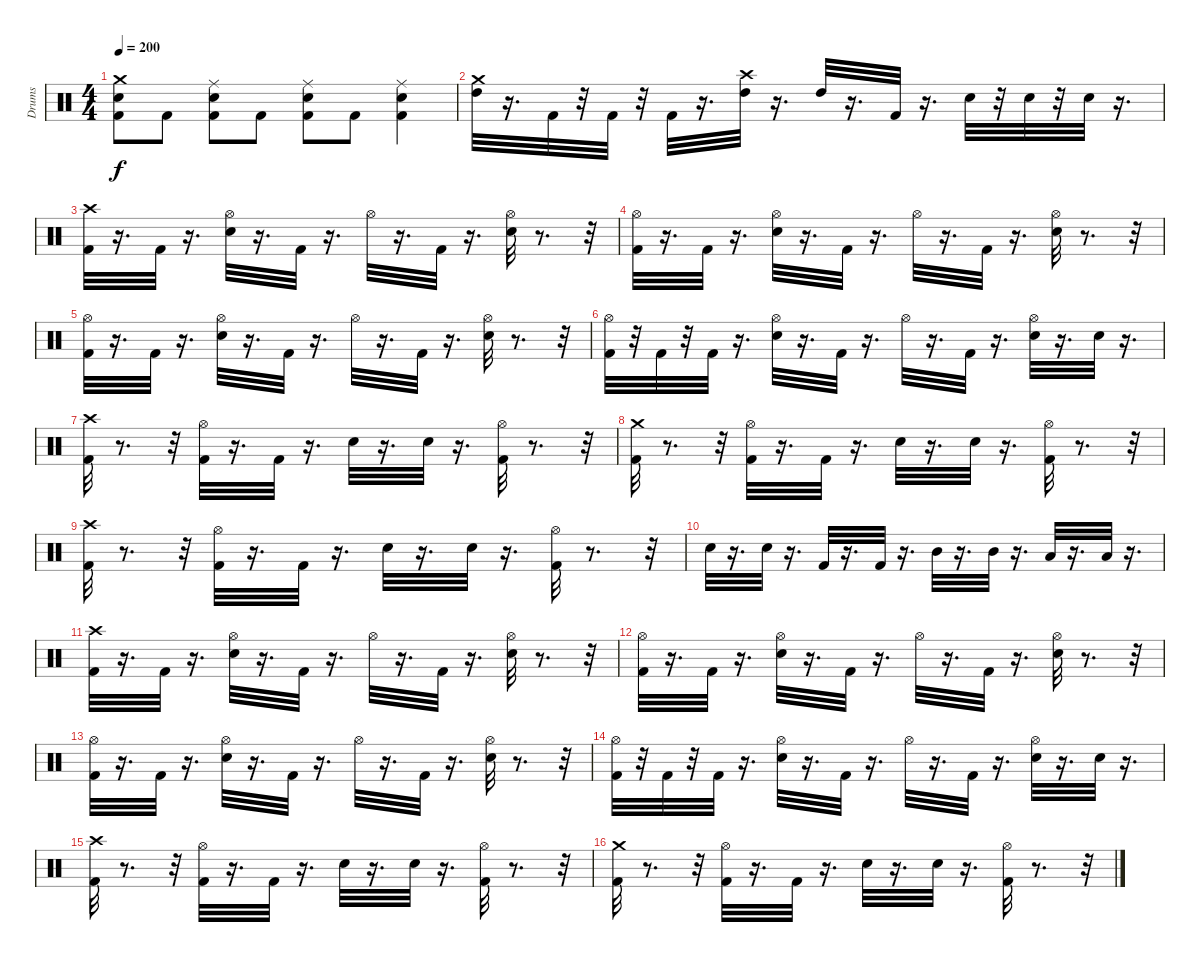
\track ("Drums" "Drums") {instrument percussion}
\staff {score}
\articulation defaults
\ts (4 4)
\tempo 200
\clef neutral
\ks c
("Crash medium (hit)" "Electric Snare (hit)" "Kick (hit) 2").8{dy f} "Kick (hit) 2".8 ("Electric Snare (hit)" "Kick (hit) 2" "Ride (middle)").8 "Kick (hit) 2".8 ("Electric Snare (hit)" "Ride (middle)" "Kick (hit) 2").8 "Kick (hit) 2".8 ("Ride (middle)" "Kick (hit) 2" "Electric Snare (hit)").4 |
("High Tom (hit)" "Crash medium (hit)").32 r.16{d} "Kick (hit) 2".32 r.32 "Kick (hit) 2".32 r.32 "Kick (hit) 2".32 r.16{d} ("Crash high (hit)" "High Tom (hit)").32 r.16{d} "High Tom (hit)".32 r.16{d} "Kick (hit) 2".32 r.16{d} "Electric Snare (hit)".32 r.32 "Electric Snare (hit)".32 r.32 "Electric Snare (hit)".32 r.16{d} |
("Crash high (hit)" "Kick (hit) 2").32 r.16{d} "Kick (hit) 2".32 r.16{d} ("Hi-Hat (open)" "Electric Snare (hit)").32 r.16{d} "Kick (hit) 2".32 r.16{d} "Hi-Hat (open)".32 r.16{d} "Kick (hit) 2".32 r.16{d} ("Hi-Hat (open)" "Electric Snare (hit)").32 r.8{d} r.32 |
("Hi-Hat (open)" "Kick (hit) 2").32 r.16{d} "Kick (hit) 2".32 r.16{d} ("Hi-Hat (open)" "Electric Snare (hit)").32 r.16{d} "Kick (hit) 2".32 r.16{d} "Hi-Hat (open)".32 r.16{d} "Kick (hit) 2".32 r.16{d} ("Hi-Hat (open)" "Electric Snare (hit)").32 r.8{d} r.32 |
("Hi-Hat (open)" "Kick (hit) 2").32 r.16{d} "Kick (hit) 2".32 r.16{d} ("Hi-Hat (open)" "Electric Snare (hit)").32 r.16{d} "Kick (hit) 2".32 r.16{d} "Hi-Hat (open)".32 r.16{d} "Kick (hit) 2".32 r.16{d} ("Hi-Hat (open)" "Electric Snare (hit)").32 r.8{d} r.32 |
("Hi-Hat (open)" "Kick (hit) 2").32 r.32 "Kick (hit) 2".32 r.32 "Kick (hit) 2".32 r.16{d} ("Hi-Hat (open)" "Electric Snare (hit)").32 r.16{d} "Kick (hit) 2".32 r.16{d} "Hi-Hat (open)".32 r.16{d} "Kick (hit) 2".32 r.16{d} ("Hi-Hat (open)" "Electric Snare (hit)").32 r.16{d} "Electric Snare (hit)".32 r.16{d} |
("Crash high (hit)" "Kick (hit) 2").32 r.8{d} r.32 ("Hi-Hat (open)" "Kick (hit) 2").32 r.16{d} "Kick (hit) 2".32 r.16{d} "Electric Snare (hit)".32 r.16{d} "Electric Snare (hit)".32 r.16{d} ("Kick (hit) 2" "Hi-Hat (open)").32 r.8{d} r.32 |
("Crash medium (hit)" "Kick (hit) 2").32 r.8{d} r.32 ("Hi-Hat (open)" "Kick (hit) 2").32 r.16{d} "Kick (hit) 2".32 r.16{d} "Electric Snare (hit)".32 r.16{d} "Electric Snare (hit)".32 r.16{d} ("Hi-Hat (open)" "Kick (hit) 2").32 r.8{d} r.32 |
("Crash high (hit)" "Kick (hit) 2").32 r.8{d} r.32 ("Hi-Hat (open)" "Kick (hit) 2").32 r.16{d} "Kick (hit) 2".32 r.16{d} "Electric Snare (hit)".32 r.16{d} "Electric Snare (hit)".32 r.16{d} ("Hi-Hat (open)" "Kick (hit) 2").32 r.8{d} r.32 |
"Electric Snare (hit)".32 r.16{d} "Electric Snare (hit)".32 r.16{d} "Kick (hit) 2".32 r.16{d} "Kick (hit) 2".32 r.16{d} "Mid Tom (hit)".32 r.16{d} "Mid Tom (hit)".32 r.16{d} "Low Tom (hit)".32 r.16{d} "Low Tom (hit)".32 r.16{d} |
("Crash high (hit)" "Kick (hit) 2").32 r.16{d} "Kick (hit) 2".32 r.16{d} ("Hi-Hat (open)" "Electric Snare (hit)").32 r.16{d} "Kick (hit) 2".32 r.16{d} "Hi-Hat (open)".32 r.16{d} "Kick (hit) 2".32 r.16{d} ("Hi-Hat (open)" "Electric Snare (hit)").32 r.8{d} r.32 |
("Hi-Hat (open)" "Kick (hit) 2").32 r.16{d} "Kick (hit) 2".32 r.16{d} ("Hi-Hat (open)" "Electric Snare (hit)").32 r.16{d} "Kick (hit) 2".32 r.16{d} "Hi-Hat (open)".32 r.16{d} "Kick (hit) 2".32 r.16{d} ("Hi-Hat (open)" "Electric Snare (hit)").32 r.8{d} r.32 |
("Hi-Hat (open)" "Kick (hit) 2").32 r.16{d} "Kick (hit) 2".32 r.16{d} ("Hi-Hat (open)" "Electric Snare (hit)").32 r.16{d} "Kick (hit) 2".32 r.16{d} "Hi-Hat (open)".32 r.16{d} "Kick (hit) 2".32 r.16{d} ("Hi-Hat (open)" "Electric Snare (hit)").32 r.8{d} r.32 |
("Hi-Hat (open)" "Kick (hit) 2").32 r.32 "Kick (hit) 2".32 r.32 "Kick (hit) 2".32 r.16{d} ("Hi-Hat (open)" "Electric Snare (hit)").32 r.16{d} "Kick (hit) 2".32 r.16{d} "Hi-Hat (open)".32 r.16{d} "Kick (hit) 2".32 r.16{d} ("Hi-Hat (open)" "Electric Snare (hit)").32 r.16{d} "Electric Snare (hit)".32 r.16{d} |
("Crash high (hit)" "Kick (hit) 2").32 r.8{d} r.32 ("Hi-Hat (open)" "Kick (hit) 2").32 r.16{d} "Kick (hit) 2".32 r.16{d} "Electric Snare (hit)".32 r.16{d} "Electric Snare (hit)".32 r.16{d} ("Kick (hit) 2" "Hi-Hat (open)").32 r.8{d} r.32 |
("Crash medium (hit)" "Kick (hit) 2").32 r.8{d} r.32 ("Hi-Hat (open)" "Kick (hit) 2").32 r.16{d} "Kick (hit) 2".32 r.16{d} "Electric Snare (hit)".32 r.16{d} "Electric Snare (hit)".32 r.16{d} ("Hi-Hat (open)" "Kick (hit) 2").32 r.8{d} r.32
